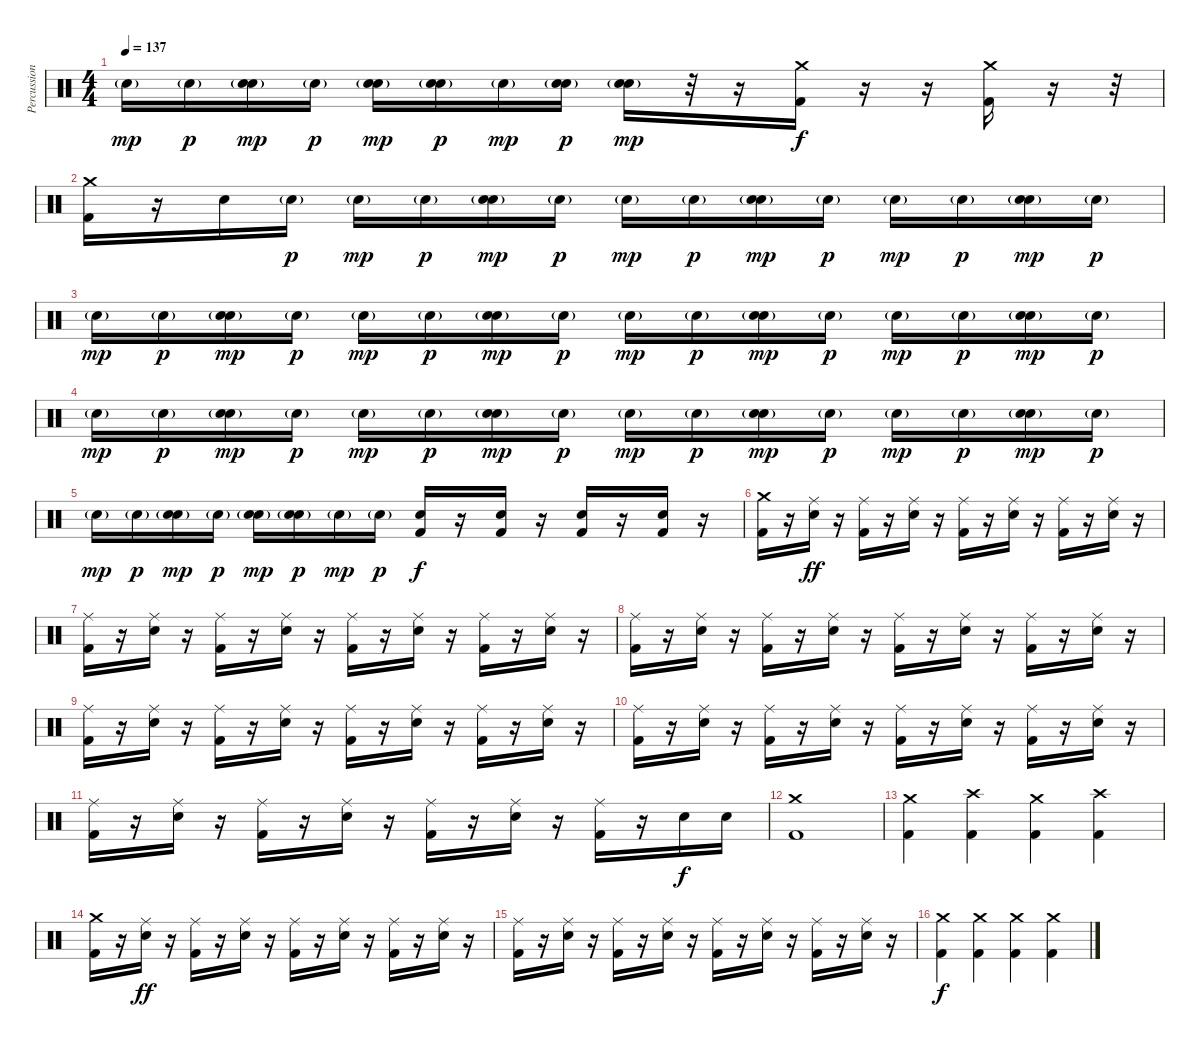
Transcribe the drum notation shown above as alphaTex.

\track ("Percussion" "Percussion") {instrument percussion}
\staff {score}
\articulation defaults
\ts (4 4)
\tempo 137
\clef neutral
\ks c "Electric Snare (hit)"{g}.16{dy mp} "Electric Snare (hit)"{g}.16{dy p}
("Electric Snare (hit)"{g} "Electric Snare (hit)").16{dy mp} "Electric Snare (hit)"{g}.16{dy p} ("Electric Snare (hit)"{g} "Electric Snare (hit)").16{dy mp} ("Electric Snare (hit)"{g} "Electric Snare (hit)").16{dy p} "Electric Snare (hit)"{g}.16{dy mp} ("Electric Snare (hit)"{g} "Electric Snare (hit)").16{dy p} ("Electric Snare (hit)"{g} "Electric Snare (hit)").16{dy mp} r.32 r.16 ("Crash medium (hit)" "Kick (hit) 2").16{dy f} r.16 r.16 ("Crash medium (hit)" "Kick (hit) 2").16 r.16 r.32 |
("Crash medium (hit)" "Kick (hit) 2").16 r.16 "Electric Snare (hit)".16 "Electric Snare (hit)"{g}.16{dy p} "Electric Snare (hit)"{g}.16{dy mp} "Electric Snare (hit)"{g}.16{dy p} ("Electric Snare (hit)"{g} "Electric Snare (hit)").16{dy mp} "Electric Snare (hit)"{g}.16{dy p} "Electric Snare (hit)"{g}.16{dy mp} "Electric Snare (hit)"{g}.16{dy p} ("Electric Snare (hit)"{g} "Electric Snare (hit)").16{dy mp} "Electric Snare (hit)"{g}.16{dy p} "Electric Snare (hit)"{g}.16{dy mp} "Electric Snare (hit)"{g}.16{dy p} ("Electric Snare (hit)"{g} "Electric Snare (hit)").16{dy mp} "Electric Snare (hit)"{g}.16{dy p} |
"Electric Snare (hit)"{g}.16{dy mp} "Electric Snare (hit)"{g}.16{dy p} ("Electric Snare (hit)"{g} "Electric Snare (hit)").16{dy mp} "Electric Snare (hit)"{g}.16{dy p} "Electric Snare (hit)"{g}.16{dy mp} "Electric Snare (hit)"{g}.16{dy p} ("Electric Snare (hit)"{g} "Electric Snare (hit)").16{dy mp} "Electric Snare (hit)"{g}.16{dy p} "Electric Snare (hit)"{g}.16{dy mp} "Electric Snare (hit)"{g}.16{dy p} ("Electric Snare (hit)"{g} "Electric Snare (hit)").16{dy mp} "Electric Snare (hit)"{g}.16{dy p} "Electric Snare (hit)"{g}.16{dy mp} "Electric Snare (hit)"{g}.16{dy p} ("Electric Snare (hit)"{g} "Electric Snare (hit)").16{dy mp} "Electric Snare (hit)"{g}.16{dy p} |
"Electric Snare (hit)"{g}.16{dy mp} "Electric Snare (hit)"{g}.16{dy p} ("Electric Snare (hit)"{g} "Electric Snare (hit)").16{dy mp} "Electric Snare (hit)"{g}.16{dy p} "Electric Snare (hit)"{g}.16{dy mp} "Electric Snare (hit)"{g}.16{dy p} ("Electric Snare (hit)"{g} "Electric Snare (hit)").16{dy mp} "Electric Snare (hit)"{g}.16{dy p} "Electric Snare (hit)"{g}.16{dy mp} "Electric Snare (hit)"{g}.16{dy p} ("Electric Snare (hit)"{g} "Electric Snare (hit)").16{dy mp} "Electric Snare (hit)"{g}.16{dy p} "Electric Snare (hit)"{g}.16{dy mp} "Electric Snare (hit)"{g}.16{dy p} ("Electric Snare (hit)"{g} "Electric Snare (hit)").16{dy mp} "Electric Snare (hit)"{g}.16{dy p} |
"Electric Snare (hit)"{g}.16{dy mp} "Electric Snare (hit)"{g}.16{dy p} ("Electric Snare (hit)"{g} "Electric Snare (hit)").16{dy mp} "Electric Snare (hit)"{g}.16{dy p} ("Electric Snare (hit)"{g} "Electric Snare (hit)").16{dy mp} ("Electric Snare (hit)"{g} "Electric Snare (hit)").16{dy p} "Electric Snare (hit)"{g}.16{dy mp} "Electric Snare (hit)"{g}.16{dy p} ("Electric Snare (hit)" "Kick (hit) 2").16{dy f} r.16 ("Electric Snare (hit)" "Kick (hit) 2").16 r.16 ("Electric Snare (hit)" "Kick (hit) 2").16 r.16 ("Electric Snare (hit)" "Kick (hit) 2").16 r.16 |
("Crash medium (hit)" "Kick (hit) 2").16 r.16 ("Ride (middle)" "Electric Snare (hit)").16{dy ff} r.16 ("Ride (middle)" "Kick (hit) 2").16 r.16 ("Ride (middle)" "Electric Snare (hit)").16 r.16 ("Ride (middle)" "Kick (hit) 2").16 r.16 ("Ride (middle)" "Electric Snare (hit)").16 r.16 ("Ride (middle)" "Kick (hit) 2").16 r.16 ("Ride (middle)" "Electric Snare (hit)").16 r.16 |
("Ride (middle)" "Kick (hit) 2").16 r.16 ("Ride (middle)" "Electric Snare (hit)").16 r.16 ("Ride (middle)" "Kick (hit) 2").16 r.16 ("Ride (middle)" "Electric Snare (hit)").16 r.16 ("Ride (middle)" "Kick (hit) 2").16 r.16 ("Ride (middle)" "Electric Snare (hit)").16 r.16 ("Ride (middle)" "Kick (hit) 2").16 r.16 ("Ride (middle)" "Electric Snare (hit)").16 r.16 |
("Ride (middle)" "Kick (hit) 2").16 r.16 ("Ride (middle)" "Electric Snare (hit)").16 r.16 ("Ride (middle)" "Kick (hit) 2").16 r.16 ("Ride (middle)" "Electric Snare (hit)").16 r.16 ("Ride (middle)" "Kick (hit) 2").16 r.16 ("Ride (middle)" "Electric Snare (hit)").16 r.16 ("Ride (middle)" "Kick (hit) 2").16 r.16 ("Ride (middle)" "Electric Snare (hit)").16 r.16 |
("Ride (middle)" "Kick (hit) 2").16 r.16 ("Ride (middle)" "Electric Snare (hit)").16 r.16 ("Ride (middle)" "Kick (hit) 2").16 r.16 ("Ride (middle)" "Electric Snare (hit)").16 r.16 ("Ride (middle)" "Kick (hit) 2").16 r.16 ("Ride (middle)" "Electric Snare (hit)").16 r.16 ("Ride (middle)" "Kick (hit) 2").16 r.16 ("Ride (middle)" "Electric Snare (hit)").16 r.16 |
("Ride (middle)" "Kick (hit) 2").16 r.16 ("Ride (middle)" "Electric Snare (hit)").16 r.16 ("Ride (middle)" "Kick (hit) 2").16 r.16 ("Ride (middle)" "Electric Snare (hit)").16 r.16 ("Ride (middle)" "Kick (hit) 2").16 r.16 ("Ride (middle)" "Electric Snare (hit)").16 r.16 ("Ride (middle)" "Kick (hit) 2").16 r.16 ("Ride (middle)" "Electric Snare (hit)").16 r.16 |
("Ride (middle)" "Kick (hit) 2").16 r.16 ("Ride (middle)" "Electric Snare (hit)").16 r.16 ("Ride (middle)" "Kick (hit) 2").16 r.16 ("Ride (middle)" "Electric Snare (hit)").16 r.16 ("Ride (middle)" "Kick (hit) 2").16 r.16 ("Ride (middle)" "Electric Snare (hit)").16 r.16 ("Ride (middle)" "Kick (hit) 2").16 r.16 "Electric Snare (hit)".16{dy f} "Electric Snare (hit)".16 |
("Crash medium (hit)" "Kick (hit) 2").1 |
("Crash medium (hit)" "Kick (hit) 2").4 ("Crash high (hit)" "Kick (hit) 2").4 ("Crash medium (hit)" "Kick (hit) 2").4 ("Crash high (hit)" "Kick (hit) 2").4 |
("Crash medium (hit)" "Kick (hit) 2").16 r.16 ("Ride (middle)" "Electric Snare (hit)").16{dy ff} r.16 ("Ride (middle)" "Kick (hit) 2").16 r.16 ("Ride (middle)" "Electric Snare (hit)").16 r.16 ("Ride (middle)" "Kick (hit) 2").16 r.16 ("Ride (middle)" "Electric Snare (hit)").16 r.16 ("Ride (middle)" "Kick (hit) 2").16 r.16 ("Ride (middle)" "Electric Snare (hit)").16 r.16 |
("Ride (middle)" "Kick (hit) 2").16 r.16 ("Ride (middle)" "Electric Snare (hit)").16 r.16 ("Ride (middle)" "Kick (hit) 2").16 r.16 ("Ride (middle)" "Electric Snare (hit)").16 r.16 ("Ride (middle)" "Kick (hit) 2").16 r.16 ("Ride (middle)" "Electric Snare (hit)").16 r.16 ("Ride (middle)" "Kick (hit) 2").16 r.16 ("Ride (middle)" "Electric Snare (hit)").16 r.16 |
("Crash medium (hit)" "Kick (hit) 2").4{dy f} ("Crash medium (hit)" "Kick (hit) 2").4 ("Crash medium (hit)" "Kick (hit) 2").4 ("Crash medium (hit)" "Kick (hit) 2").4
